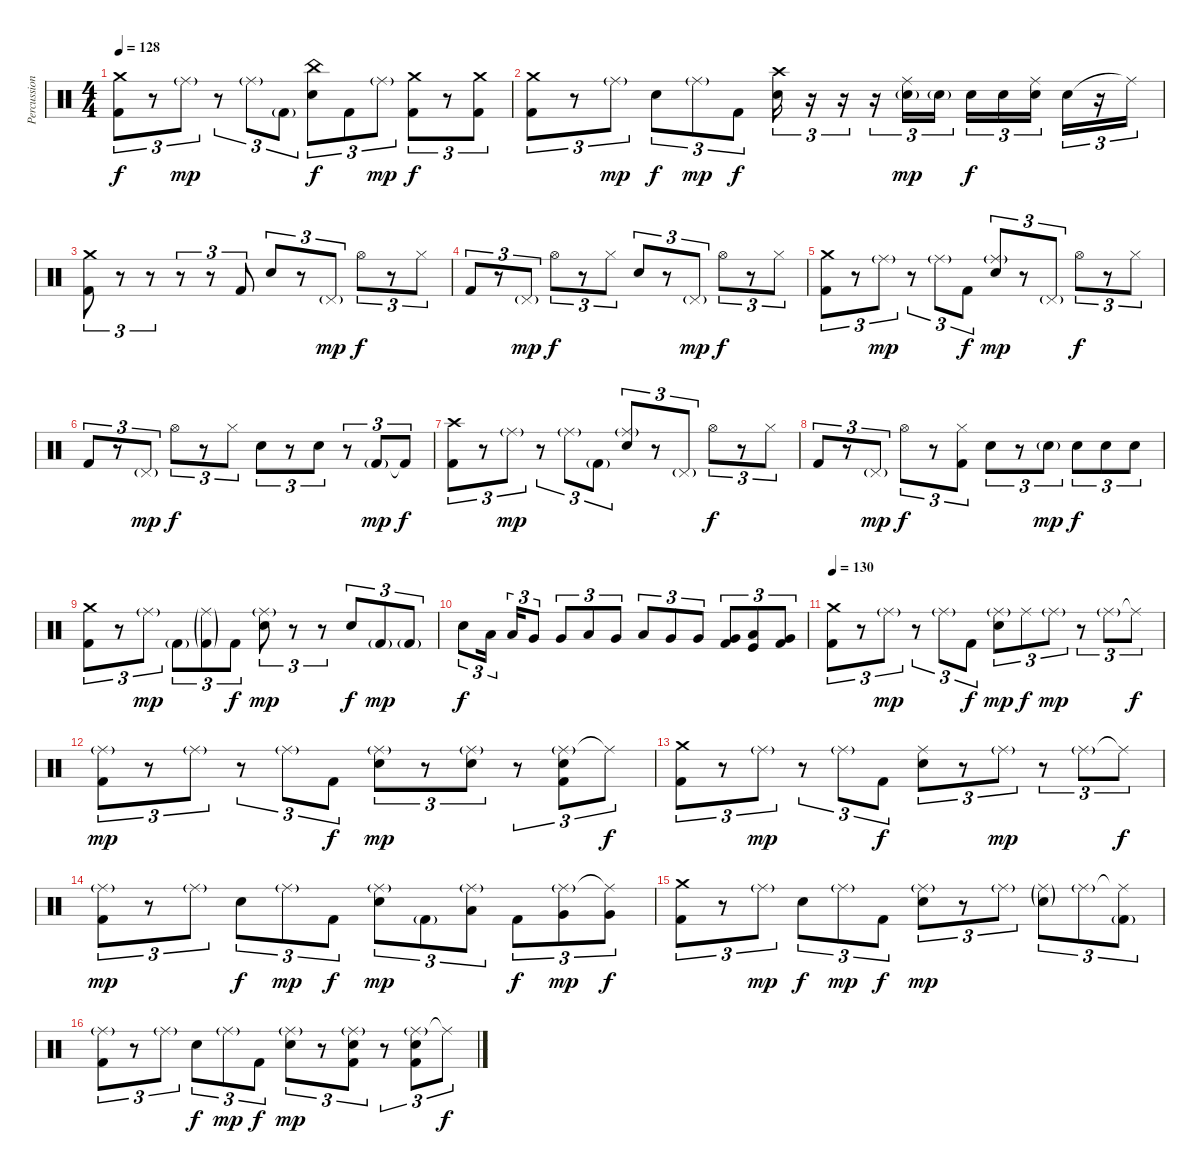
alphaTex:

\track ("Percussions" "Percussion") {instrument percussion}
\staff {score}
\articulation defaults
\ts (4 4)
\tempo 128
\clef neutral
\ks c
("Crash medium (hit)" "Kick (hit) 2").8{tu (3 2) dy f} r.8{tu (3 2)} "Ride (middle)"{g}.8{tu (3 2) dy mp} r.8{tu (3 2)} "Ride (middle)"{g}.8{tu (3 2)} "Kick (hit) 2"{g}.8{tu (3 2)} ("China (hit)" "Electric Snare (hit)").8{tu (3 2) dy f} "Kick (hit) 2".8{tu (3 2)} "Ride (middle)"{g}.8{tu (3 2) dy mp} ("Crash medium (hit)" "Kick (hit) 2").8{tu (3 2) dy f} r.8{tu (3 2)} ("Crash medium (hit)" "Kick (hit) 2").8{tu (3 2)} |
("Crash medium (hit)" "Kick (hit) 2").8{tu (3 2)} r.8{tu (3 2)} "Ride (middle)"{g}.8{tu (3 2) dy mp} "Electric Snare (hit)".8{tu (3 2) dy f} "Ride (middle)"{g}.8{tu (3 2) dy mp} "Kick (hit) 2".8{tu (3 2) dy f} ("Crash high (hit)" "Electric Snare (hit)").16{tu (3 2)} r.16{tu (3 2)} r.16{tu (3 2)} r.16{tu (3 2)} ("Ride (middle)" "Electric Snare (hit)"{g}).16{tu (3 2) dy mp} "Electric Snare (hit)"{g}.16{tu (3 2)} "Electric Snare (hit)".16{tu (3 2) dy f} "Electric Snare (hit)".16{tu (3 2)} ("Ride (middle)" "Electric Snare (hit)").16{tu (3 2) beam splitsecondary} "Electric Snare (hit)".16{tu (3 2)} r.16{tu (3 2)} "Ride (middle)"{t}.16{tu (3 2)} |
("Crash medium (hit)" "Kick (hit) 2").8{tu (3 2)} r.8{tu (3 2)} r.8{tu (3 2)} r.8{tu (3 2)} r.8{tu (3 2)} "Kick (hit) 2".8{tu (3 2)} "Electric Snare (hit)".8{tu (3 2)} r.8{tu (3 2)} "Pedal Hi-Hat (hit)"{g}.8{tu (3 2) dy mp} "Hi-Hat (open)".8{tu (3 2) dy f} r.8{tu (3 2)} "Hi-Hat (closed)".8{tu (3 2)} |
"Kick (hit) 2".8{tu (3 2)} r.8{tu (3 2)} "Pedal Hi-Hat (hit)"{g}.8{tu (3 2) dy mp} "Hi-Hat (open)".8{tu (3 2) dy f} r.8{tu (3 2)} "Hi-Hat (closed)".8{tu (3 2)} "Electric Snare (hit)".8{tu (3 2)} r.8{tu (3 2)} "Pedal Hi-Hat (hit)"{g}.8{tu (3 2) dy mp} "Hi-Hat (open)".8{tu (3 2) dy f} r.8{tu (3 2)} "Hi-Hat (closed)".8{tu (3 2)} |
("Crash medium (hit)" "Kick (hit) 2").8{tu (3 2)} r.8{tu (3 2)} "Ride (middle)"{g}.8{tu (3 2) dy mp} r.8{tu (3 2)} "Ride (middle)"{g}.8{tu (3 2)} "Kick (hit) 2".8{tu (3 2) dy f} ("Ride (middle)"{g} "Electric Snare (hit)").8{tu (3 2) dy mp} r.8{tu (3 2)} "Pedal Hi-Hat (hit)"{g}.8{tu (3 2)} "Hi-Hat (open)".8{tu (3 2) dy f} r.8{tu (3 2)} "Hi-Hat (closed)".8{tu (3 2)} |
"Kick (hit) 2".8{tu (3 2)} r.8{tu (3 2)} "Pedal Hi-Hat (hit)"{g}.8{tu (3 2) dy mp} "Hi-Hat (open)".8{tu (3 2) dy f} r.8{tu (3 2)} "Hi-Hat (closed)".8{tu (3 2)} "Electric Snare (hit)".8{tu (3 2)} r.8{tu (3 2)} "Electric Snare (hit)".8{tu (3 2)} r.8{tu (3 2)} "Kick (hit) 2"{g}.8{tu (3 2) dy mp} "Kick (hit) 2"{t}.8{tu (3 2) dy f} |
("Crash high (hit)" "Kick (hit) 2").8{tu (3 2)} r.8{tu (3 2)} "Ride (middle)"{g}.8{tu (3 2) dy mp} r.8{tu (3 2)} "Ride (middle)"{g}.8{tu (3 2)} "Kick (hit) 2"{g}.8{tu (3 2)} ("Ride (middle)"{g} "Electric Snare (hit)").8{tu (3 2)} r.8{tu (3 2)} "Pedal Hi-Hat (hit)"{g}.8{tu (3 2)} "Hi-Hat (open)".8{tu (3 2) dy f} r.8{tu (3 2)} "Hi-Hat (closed)".8{tu (3 2)} |
"Kick (hit) 2".8{tu (3 2)} r.8{tu (3 2)} "Pedal Hi-Hat (hit)"{g}.8{tu (3 2) dy mp} "Hi-Hat (open)".8{tu (3 2) dy f} r.8{tu (3 2)} ("Hi-Hat (closed)" "Kick (hit) 2").8{tu (3 2)} "Electric Snare (hit)".8{tu (3 2)} r.8{tu (3 2)} "Electric Snare (hit)"{g}.8{tu (3 2) dy mp} "Electric Snare (hit)".8{tu (3 2) dy f} "Electric Snare (hit)".8{tu (3 2)} "Electric Snare (hit)".8{tu (3 2)} |
("Crash medium (hit)" "Kick (hit) 2").8{tu (3 2)} r.8{tu (3 2)} "Ride (middle)"{g}.8{tu (3 2) dy mp} "Kick (hit) 2"{g}.8{tu (3 2)} ("Ride (middle)"{g} "Kick (hit) 2"{g}).8{tu (3 2)} "Kick (hit) 2".8{tu (3 2) dy f} ("Ride (middle)"{g} "Electric Snare (hit)").8{tu (3 2) dy mp} r.8{tu (3 2)} r.8{tu (3 2)} "Electric Snare (hit)".8{tu (3 2) dy f} "Kick (hit) 2"{g}.8{tu (3 2) dy mp} "Kick (hit) 2"{g}.8{tu (3 2)} |
"Electric Snare (hit)".8{tu (3 2) dy f} "Low Floor Tom (hit)".16{tu (3 2) beam splitsecondary} "Low Floor Tom (hit)".16{tu (3 2)} "Very Low Tom (hit)".8{tu (3 2)} "Very Low Tom (hit)".8{tu (3 2)} "Low Floor Tom (hit)".8{tu (3 2)} "Very Low Tom (hit)".8{tu (3 2)} "Low Floor Tom (hit)".8{tu (3 2)} "Very Low Tom (hit)".8{tu (3 2)} "Very Low Tom (hit)".8{tu (3 2)} ("Very Low Tom (hit)" "Kick (hit) 2").8{tu (3 2)} ("Low Floor Tom (hit)" "Kick (hit)").8{tu (3 2)} ("Very Low Tom (hit)" "Kick (hit) 2").8{tu (3 2)} |
\tempo 130
("Crash medium (hit)" "Kick (hit) 2").8{tu (3 2)} r.8{tu (3 2)} "Ride (middle)"{g}.8{tu (3 2) dy mp} r.8{tu (3 2)} "Ride (middle)"{g}.8{tu (3 2)} "Kick (hit) 2".8{tu (3 2) dy f} ("Ride (middle)"{g} "Electric Snare (hit)").8{tu (3 2) dy mp} "Ride (middle)".8{tu (3 2) dy f} "Ride (middle)"{g}.8{tu (3 2) dy mp} r.8{tu (3 2)} "Ride (middle)"{g}.8{tu (3 2)} "Ride (middle)"{t}.8{tu (3 2) dy f} |
("Ride (middle)"{g} "Kick (hit) 2").8{tu (3 2) dy mp} r.8{tu (3 2)} "Ride (middle)"{g}.8{tu (3 2)} r.8{tu (3 2)} "Ride (middle)"{g}.8{tu (3 2)} "Kick (hit) 2".8{tu (3 2) dy f} ("Ride (middle)"{g} "Electric Snare (hit)").8{tu (3 2) dy mp} r.8{tu (3 2)} ("Ride (middle)"{g} "Electric Snare (hit)").8{tu (3 2)} r.8{tu (3 2)} ("Ride (middle)"{g} "Electric Snare (hit)" "Kick (hit) 2").8{tu (3 2)} "Ride (middle)"{t}.8{tu (3 2) dy f} |
("Crash medium (hit)" "Kick (hit) 2").8{tu (3 2)} r.8{tu (3 2)} "Ride (middle)"{g}.8{tu (3 2) dy mp} r.8{tu (3 2)} "Ride (middle)"{g}.8{tu (3 2)} "Kick (hit) 2".8{tu (3 2) dy f} ("Ride (middle)" "Electric Snare (hit)").8{tu (3 2)} r.8{tu (3 2)} "Ride (middle)"{g}.8{tu (3 2) dy mp} r.8{tu (3 2)} "Ride (middle)"{g}.8{tu (3 2)} "Ride (middle)"{t}.8{tu (3 2) dy f} |
("Ride (middle)"{g} "Kick (hit) 2").8{tu (3 2) dy mp} r.8{tu (3 2)} "Ride (middle)"{g}.8{tu (3 2)} "Electric Snare (hit)".8{tu (3 2) dy f} "Ride (middle)"{g}.8{tu (3 2) dy mp} "Kick (hit) 2".8{tu (3 2) dy f} ("Ride (middle)"{g} "Electric Snare (hit)").8{tu (3 2) dy mp} "Kick (hit) 2"{g}.8{tu (3 2)} ("Ride (middle)"{g} "Low Tom (hit)").8{tu (3 2)} "Kick (hit) 2".8{tu (3 2) dy f} ("Ride (middle)"{g} "Very Low Tom (hit)").8{tu (3 2) dy mp} ("Ride (middle)"{t} "Very Low Tom (hit)").8{tu (3 2) dy f} |
("Crash medium (hit)" "Kick (hit) 2").8{tu (3 2)} r.8{tu (3 2)} "Ride (middle)"{g}.8{tu (3 2) dy mp} "Electric Snare (hit)".8{tu (3 2) dy f} "Ride (middle)"{g}.8{tu (3 2) dy mp} "Kick (hit) 2".8{tu (3 2) dy f} ("Ride (middle)"{g} "Electric Snare (hit)").8{tu (3 2) dy mp} r.8{tu (3 2)} "Ride (middle)"{g}.8{tu (3 2)} ("Ride (middle)"{g} "Electric Snare (hit)"{g}).8{tu (3 2)} "Ride (middle)"{g}.8{tu (3 2)} ("Ride (middle)"{t} "Kick (hit) 2"{g}).8{tu (3 2)} |
("Ride (middle)"{g} "Kick (hit) 2").8{tu (3 2)} r.8{tu (3 2)} "Ride (middle)"{g}.8{tu (3 2)} "Electric Snare (hit)".8{tu (3 2) dy f} "Ride (middle)"{g}.8{tu (3 2) dy mp} "Kick (hit) 2".8{tu (3 2) dy f} ("Ride (middle)"{g} "Electric Snare (hit)").8{tu (3 2) dy mp} r.8{tu (3 2)} ("Ride (middle)"{g} "Electric Snare (hit)" "Kick (hit) 2").8{tu (3 2)} r.8{tu (3 2)} ("Ride (middle)"{g} "Electric Snare (hit)" "Kick (hit) 2").8{tu (3 2)} "Ride (middle)"{t}.8{tu (3 2) dy f}
